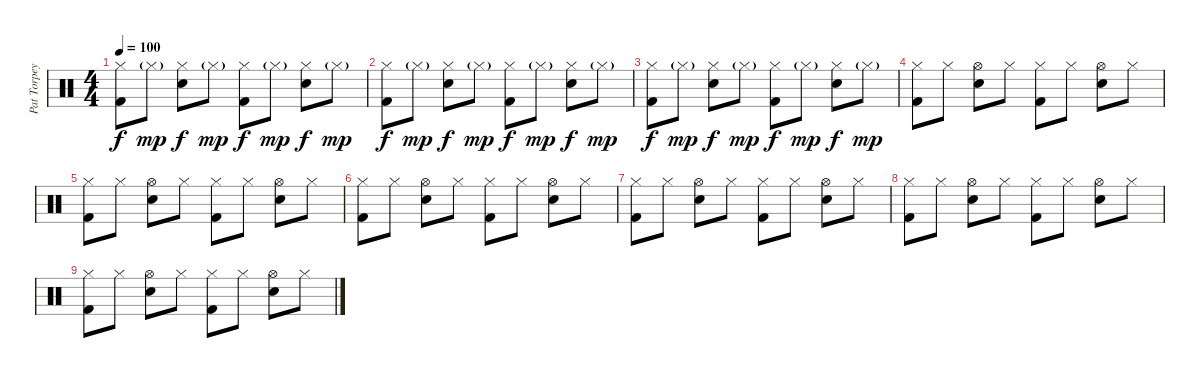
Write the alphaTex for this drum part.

\track ("Pat Torpey" "Pat Torpey") {instrument percussion}
\staff {score}
\articulation defaults
\ts (4 4)
\tempo 100
\clef neutral
\ks c
("Hi-Hat (closed)" "Kick (hit) 2").8{dy f} "Hi-Hat (closed)"{g}.8{dy mp} ("Hi-Hat (closed)" "Electric Snare (hit)").8{dy f} "Hi-Hat (closed)"{g}.8{dy mp} ("Hi-Hat (closed)" "Kick (hit) 2").8{dy f} "Hi-Hat (closed)"{g}.8{dy mp} ("Hi-Hat (closed)" "Electric Snare (hit)").8{dy f} "Hi-Hat (closed)"{g}.8{dy mp} |
("Hi-Hat (closed)" "Kick (hit) 2").8{dy f} "Hi-Hat (closed)"{g}.8{dy mp} ("Hi-Hat (closed)" "Electric Snare (hit)").8{dy f} "Hi-Hat (closed)"{g}.8{dy mp} ("Hi-Hat (closed)" "Kick (hit) 2").8{dy f} "Hi-Hat (closed)"{g}.8{dy mp} ("Hi-Hat (closed)" "Electric Snare (hit)").8{dy f} "Hi-Hat (closed)"{g}.8{dy mp} |
("Hi-Hat (closed)" "Kick (hit) 2").8{dy f} "Hi-Hat (closed)"{g}.8{dy mp} ("Hi-Hat (closed)" "Electric Snare (hit)").8{dy f} "Hi-Hat (closed)"{g}.8{dy mp} ("Hi-Hat (closed)" "Kick (hit) 2").8{dy f} "Hi-Hat (closed)"{g}.8{dy mp} ("Hi-Hat (closed)" "Electric Snare (hit)").8{dy f} "Hi-Hat (closed)"{g}.8{dy mp} |
("Hi-Hat (closed)" "Kick (hit) 2").8 "Hi-Hat (closed)".8 ("Hi-Hat (open)" "Electric Snare (hit)").8 "Hi-Hat (closed)".8 ("Hi-Hat (closed)" "Kick (hit) 2").8 "Hi-Hat (closed)".8 ("Hi-Hat (open)" "Electric Snare (hit)").8 "Hi-Hat (closed)".8 |
("Hi-Hat (closed)" "Kick (hit) 2").8 "Hi-Hat (closed)".8 ("Hi-Hat (open)" "Electric Snare (hit)").8 "Hi-Hat (closed)".8 ("Hi-Hat (closed)" "Kick (hit) 2").8 "Hi-Hat (closed)".8 ("Hi-Hat (open)" "Electric Snare (hit)").8 "Hi-Hat (closed)".8 |
("Hi-Hat (closed)" "Kick (hit) 2").8 "Hi-Hat (closed)".8 ("Hi-Hat (open)" "Electric Snare (hit)").8 "Hi-Hat (closed)".8 ("Hi-Hat (closed)" "Kick (hit) 2").8 "Hi-Hat (closed)".8 ("Hi-Hat (open)" "Electric Snare (hit)").8 "Hi-Hat (closed)".8 |
("Hi-Hat (closed)" "Kick (hit) 2").8 "Hi-Hat (closed)".8 ("Hi-Hat (open)" "Electric Snare (hit)").8 "Hi-Hat (closed)".8 ("Hi-Hat (closed)" "Kick (hit) 2").8 "Hi-Hat (closed)".8 ("Hi-Hat (open)" "Electric Snare (hit)").8 "Hi-Hat (closed)".8 |
("Hi-Hat (closed)" "Kick (hit) 2").8 "Hi-Hat (closed)".8 ("Hi-Hat (open)" "Electric Snare (hit)").8 "Hi-Hat (closed)".8 ("Hi-Hat (closed)" "Kick (hit) 2").8 "Hi-Hat (closed)".8 ("Hi-Hat (open)" "Electric Snare (hit)").8 "Hi-Hat (closed)".8 |
("Hi-Hat (closed)" "Kick (hit) 2").8 "Hi-Hat (closed)".8 ("Hi-Hat (open)" "Electric Snare (hit)").8 "Hi-Hat (closed)".8 ("Hi-Hat (closed)" "Kick (hit) 2").8 "Hi-Hat (closed)".8 ("Hi-Hat (open)" "Electric Snare (hit)").8 "Hi-Hat (closed)".8
